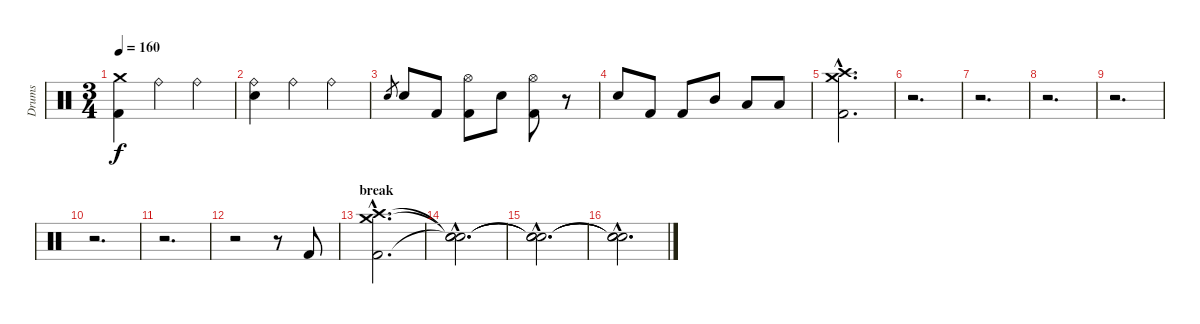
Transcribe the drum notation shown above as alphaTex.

\track ("Drums" "Drums") {instrument percussion}
\staff {score}
\articulation defaults
\ts (3 4)
\tempo 160
\clef neutral
\ks c
("Crash medium (hit)" "Kick (hit) 2").4{dy f} "Ride (bell)".4 "Ride (bell)".4 |
("Ride (bell)" "Snare (hit) 2").4 "Ride (bell)".4 "Ride (bell)".4 |
"Snare (hit) 2".8{gr} "Snare (hit) 2".8 "Kick (hit) 2".8 ("Hi-Hat (open)" "Kick (hit) 2").8 "Snare (hit) 2".8 ("Hi-Hat (open)" "Kick (hit) 2").8 r.8 |
"Snare (hit) 2".8 "Kick (hit) 2".8 "Kick (hit) 2".8 "Mid Tom (hit)".8 "Low Tom (hit)".8 "Low Floor Tom (hit)".8 |
("Crash high (hit)"{hac} "Crash medium (hit)"{hac} "Kick (hit) 2"{hac}).2{d} |
r.2{d} |
r.2{d} |
r.2{d} |
r.2{d} |
r.2{d} |
r.2{d} |
r.2 r.8 "Kick (hit) 2".8 |
\section ("" "break")
("Crash high (hit)"{hac} "Crash medium (hit)"{hac} "Kick (hit) 2"{hac}).2{d} |
("Snare (hit)"{hac t} "Snare (hit)"{hac t} "Snare (hit)"{hac t}).2{d} |
("Snare (hit)"{hac t} "Snare (hit)"{hac t} "Snare (hit)"{hac t}).2{d} |
("Snare (hit)"{hac t} "Snare (hit)"{hac t} "Snare (hit)"{hac t}).2{d}
